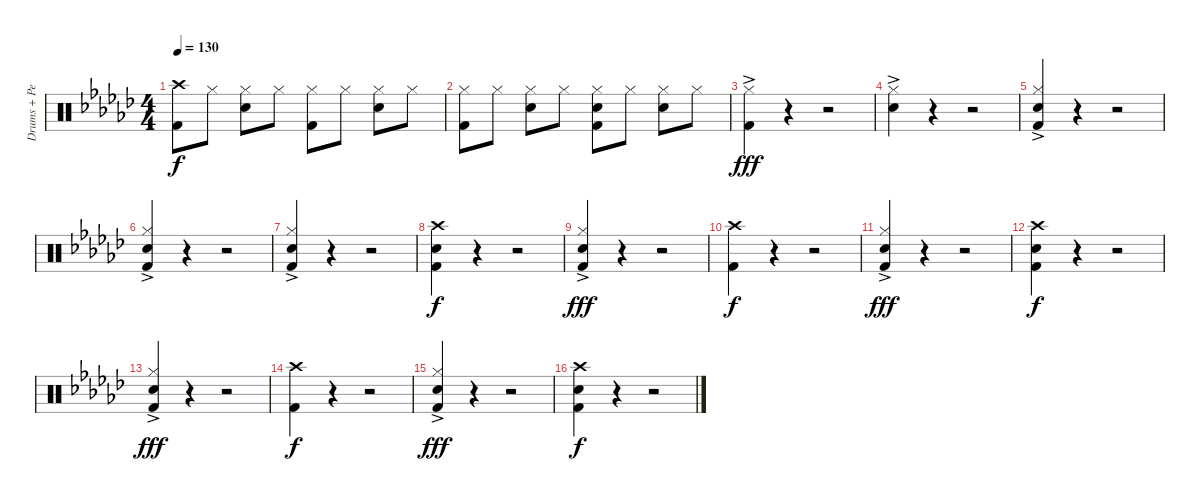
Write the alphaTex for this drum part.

\track ("Drums + Percussions" "Drums + Pe") {instrument percussion}
\staff {score}
\articulation defaults
\ts (4 4)
\tempo 130
\clef neutral
\ks gb
("Crash high (hit)" "Kick (hit) 2").8{dy f} "Hi-Hat (closed)".8 ("Hi-Hat (closed)" "Electric Snare (hit)").8 "Hi-Hat (closed)".8 ("Hi-Hat (closed)" "Kick (hit) 2").8 "Hi-Hat (closed)".8 ("Hi-Hat (closed)" "Electric Snare (hit)").8 "Hi-Hat (closed)".8 |
("Hi-Hat (closed)" "Kick (hit) 2").8 "Hi-Hat (closed)".8 ("Hi-Hat (closed)" "Electric Snare (hit)").8 "Hi-Hat (closed)".8 ("Hi-Hat (closed)" "Electric Snare (hit)" "Kick (hit) 2").8 "Hi-Hat (closed)".8 ("Hi-Hat (closed)" "Electric Snare (hit)").8 "Hi-Hat (closed)".8 |
("Hi-Hat (closed)"{ac} "Kick (hit) 2"{ac}).4{dy fff} r.4 r.2 |
("Hi-Hat (closed)"{ac} "Electric Snare (hit)"{ac}).4 r.4 r.2 |
("Hi-Hat (closed)"{ac} "Electric Snare (hit)"{ac} "Kick (hit) 2"{ac}).4 r.4 r.2 |
("Hi-Hat (closed)"{ac} "Electric Snare (hit)"{ac} "Kick (hit) 2"{ac}).4 r.4 r.2 |
("Hi-Hat (closed)"{ac} "Electric Snare (hit)"{ac} "Kick (hit) 2"{ac}).4 r.4 r.2 |
("Crash high (hit)" "Electric Snare (hit)" "Kick (hit) 2").4{dy f} r.4 r.2 |
("Hi-Hat (closed)"{ac} "Electric Snare (hit)"{ac} "Kick (hit) 2"{ac}).4{dy fff} r.4 r.2 |
("Crash high (hit)" "Kick (hit) 2").4{dy f} r.4 r.2 |
("Hi-Hat (closed)"{ac} "Electric Snare (hit)"{ac} "Kick (hit) 2"{ac}).4{dy fff} r.4 r.2 |
("Crash high (hit)" "Electric Snare (hit)" "Kick (hit) 2").4{dy f} r.4 r.2 |
("Hi-Hat (closed)"{ac} "Electric Snare (hit)"{ac} "Kick (hit) 2"{ac}).4{dy fff} r.4 r.2 |
("Crash high (hit)" "Kick (hit) 2").4{dy f} r.4 r.2 |
("Hi-Hat (closed)"{ac} "Electric Snare (hit)"{ac} "Kick (hit) 2"{ac}).4{dy fff} r.4 r.2 |
("Crash high (hit)" "Electric Snare (hit)" "Kick (hit) 2").4{dy f} r.4 r.2
